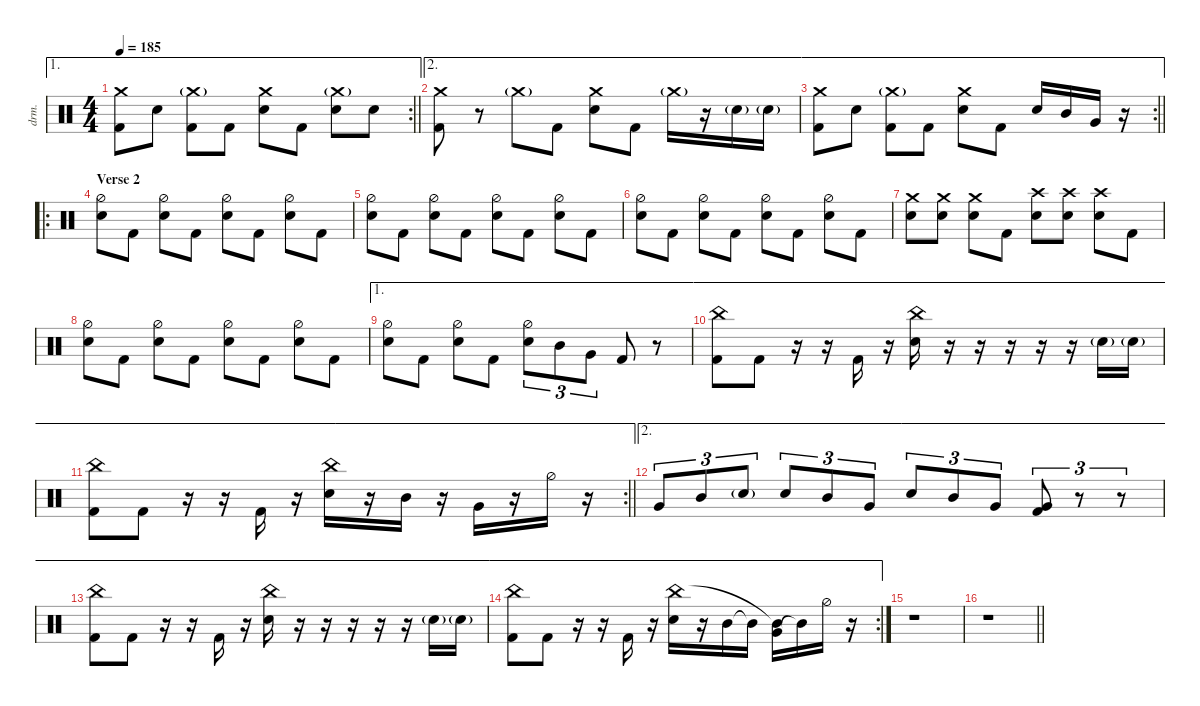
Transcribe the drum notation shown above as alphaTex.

\defaultSystemsLayout 4
\hideDynamics
\bracketExtendMode nobrackets
\track ("Drums - Šimon" "drm.") {instrument percussion}
\staff {score}
\articulation defaults
\ae 1
\rc 2
\ts (4 4)
\tempo 185
\clef neutral
\barLineRight lightlight
\ks c
("Crash medium (hit)" "Kick (hit) 2").8{dy ff beam Down} "Snare (hit) 2".8{beam Down} ("Kick (hit) 2" "Crash medium (hit)"{g}).8{beam Down} "Kick (hit) 2".8{beam Down} ("Snare (hit) 2" "Crash medium (hit)").8{beam Down} "Kick (hit) 2".8{beam Down} ("Crash medium (hit)"{g} "Snare (hit) 2").8{beam Down} "Snare (hit) 2".8{beam Down} |
\ae 2
("Kick (hit) 2" "Crash medium (hit)").8{beam Down} r.8{beam Down} "Crash medium (hit)"{g}.8{beam Down} "Kick (hit) 2".8{beam Down} ("Snare (hit) 2" "Crash medium (hit)").8{beam Down} "Kick (hit) 2".8{beam Down} "Crash medium (hit)"{g}.16{beam Down} r.16{beam Down} "Snare (hit) 2"{g}.16{beam Down} "Snare (hit) 2"{g}.16{beam Down} |
\ae 2
\rc 2
\barLineRight lightlight
("Crash medium (hit)" "Kick (hit) 2").8{beam Down} "Snare (hit) 2".8{beam Down} ("Kick (hit) 2" "Crash medium (hit)"{g}).8{beam Down} "Kick (hit) 2".8{beam Down} ("Snare (hit) 2" "Crash medium (hit)").8{beam Down} "Kick (hit) 2".8{beam Down} "Snare (hit) 2".16{beam Up} "Mid Tom (hit)".16{beam Up} "Very Low Tom (hit)".16{beam Up} r.16{beam Down} |
\ro
\section ("" "Verse 2")
("Snare (hit) 2" "Hi-Hat (half)").8{beam Down} "Kick (hit) 2".8{beam Down} ("Snare (hit) 2" "Hi-Hat (half)").8{beam Down} "Kick (hit) 2".8{beam Down} ("Snare (hit) 2" "Hi-Hat (half)").8{beam Down} "Kick (hit) 2".8{beam Down} ("Snare (hit) 2" "Hi-Hat (half)").8{beam Down} "Kick (hit) 2".8{beam Down} |
("Snare (hit) 2" "Hi-Hat (half)").8{beam Down} "Kick (hit) 2".8{beam Down} ("Snare (hit) 2" "Hi-Hat (half)").8{beam Down} "Kick (hit) 2".8{beam Down} ("Snare (hit) 2" "Hi-Hat (half)").8{beam Down} "Kick (hit) 2".8{beam Down} ("Snare (hit) 2" "Hi-Hat (half)").8{beam Down} "Kick (hit) 2".8{beam Down} |
("Snare (hit) 2" "Hi-Hat (half)").8{beam Down} "Kick (hit) 2".8{beam Down} ("Snare (hit) 2" "Hi-Hat (half)").8{beam Down} "Kick (hit) 2".8{beam Down} ("Snare (hit) 2" "Hi-Hat (half)").8{beam Down} "Kick (hit) 2".8{beam Down} ("Snare (hit) 2" "Hi-Hat (half)").8{beam Down} "Kick (hit) 2".8{beam Down} |
("Snare (hit) 2" "Crash medium (hit)").8{beam Down} ("Snare (hit) 2" "Crash medium (hit)").8{beam Down} ("Snare (hit) 2" "Crash medium (hit)").8{beam Down} "Kick (hit) 2".8{beam Down} ("Snare (hit) 2" "Crash high (hit)").8{beam Down} ("Snare (hit) 2" "Crash high (hit)").8{beam Down} ("Snare (hit) 2" "Crash high (hit)").8{beam Down} "Kick (hit) 2".8{beam Down} |
("Snare (hit) 2" "Hi-Hat (half)").8{beam Down} "Kick (hit) 2".8{beam Down} ("Snare (hit) 2" "Hi-Hat (half)").8{beam Down} "Kick (hit) 2".8{beam Down} ("Snare (hit) 2" "Hi-Hat (half)").8{beam Down} "Kick (hit) 2".8{beam Down} ("Snare (hit) 2" "Hi-Hat (half)").8{beam Down} "Kick (hit) 2".8{beam Down} |
\ae 1
("Snare (hit) 2" "Hi-Hat (half)").8{beam Down} "Kick (hit) 2".8{beam Down} ("Snare (hit) 2" "Hi-Hat (half)").8{beam Down} "Kick (hit) 2".8{beam Down} ("Hi-Hat (half)" "Snare (hit) 2").8{tu (3 2) beam Down} "Mid Tom (hit)".8{tu (3 2) beam Down} "Very Low Tom (hit)".8{tu (3 2) beam Down} "Kick (hit) 2".8{beam Up} r.8{beam Down} |
\ae 1
("China (hit)" "Kick (hit) 2").8{beam Down} "Kick (hit) 2".8{beam Down} r.16{beam Down} r.16{beam Down} "Kick (hit) 2".16{beam Up} r.16{beam Down} ("Snare (hit) 2" "China (hit)").16{beam Down} r.16{beam Down} r.16{beam Down} r.16{beam Down} r.16{beam Down} r.16{beam Down} "Snare (hit) 2"{g}.16{beam Down} "Snare (hit) 2"{g}.16{beam Down} |
\ae 1
\rc 2
\barLineRight lightlight
("China (hit)" "Kick (hit) 2").8{beam Down} "Kick (hit) 2".8{beam Down} r.16{beam Down} r.16{beam Down} "Kick (hit) 2".16{beam Up} r.16{beam Down} ("Snare (hit) 2" "China (hit)").16{beam Down} r.16{beam Down} "Mid Tom (hit)".16{beam Down} r.16{beam Down} "Very Low Tom (hit)".16{beam Down} r.16{beam Down} "Hi-Hat (half)".16{beam Down} r.16{beam Down} |
\ae 2 "Very Low Tom (hit)".8{tu (3 2) beam Up} "Mid Tom (hit)".8{tu (3 2) beam Up} "Snare (hit) 2"{g}.8{tu (3 2) beam Up} "Snare (hit) 2".8{tu (3 2) beam Up} "Mid Tom (hit)".8{tu (3 2) beam Up} "Very Low Tom (hit)".8{tu (3 2) beam Up} "Snare (hit) 2".8{tu (3 2) beam Up} "Mid Tom (hit)".8{tu (3 2) beam Up} "Very Low Tom (hit)".8{tu (3 2) beam Up}
("Kick (hit) 2" "Very Low Tom (hit)").8{tu (3 2) beam Up} r.8{tu (3 2) beam Down} r.8{tu (3 2) beam Down} |
\ae 2
("China (hit)" "Kick (hit) 2").8{beam Down} "Kick (hit) 2".8{beam Down} r.16{beam Down} r.16{beam Down} "Kick (hit) 2".16{beam Up} r.16{beam Down} ("Snare (hit) 2" "China (hit)").16{beam Down} r.16{beam Down} r.16{beam Down} r.16{beam Down} r.16{beam Down} r.16{beam Down} "Snare (hit) 2"{g}.16{beam Down} "Snare (hit) 2"{g}.16{beam Down} |
\ae 2
\rc 2
("China (hit)" "Kick (hit) 2").8{beam Down} "Kick (hit) 2".8{beam Down} r.16{beam Down} r.16{beam Down} "Kick (hit) 2".16{beam Up} r.16{beam Down} ("Snare (hit) 2" "China (hit)").16{beam Down} r.16{beam Down} "Mid Tom (hit)".16{beam Down} "Mid Tom (hit)"{t}.16{beam Down} ("Very Low Tom (hit)" "Mid Tom (hit)"{t}).16{beam Down} "Mid Tom (hit)"{t}.16{beam Down} "Hi-Hat (half)".16{beam Down} r.16{beam Down} |
r.1{beam Down} |
\barLineRight lightlight
r.1{beam Down}
